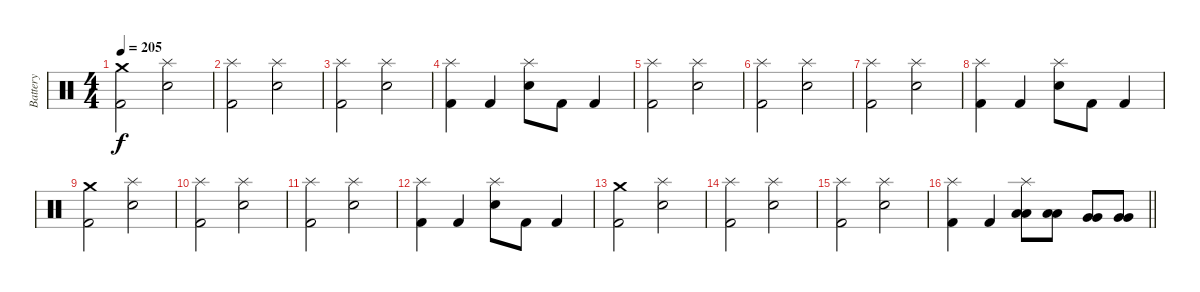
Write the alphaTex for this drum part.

\track ("Battery" "Battery") {instrument percussion}
\staff {score}
\articulation defaults
\ts (4 4)
\tempo 205
\clef neutral
\ks c
("Crash medium (hit)" "Kick (hit) 2").2{dy f} ("Splash (hit)" "Electric Snare (hit)").2 |
("Splash (hit)" "Kick (hit) 2").2 ("Splash (hit)" "Electric Snare (hit)").2 |
("Splash (hit)" "Kick (hit) 2").2 ("Splash (hit)" "Electric Snare (hit)").2 |
("Splash (hit)" "Kick (hit) 2").4 "Kick (hit) 2".4 ("Splash (hit)" "Electric Snare (hit)").8 "Kick (hit) 2".8 "Kick (hit) 2".4 |
("Splash (hit)" "Kick (hit) 2").2 ("Splash (hit)" "Electric Snare (hit)").2 |
("Splash (hit)" "Kick (hit) 2").2 ("Splash (hit)" "Electric Snare (hit)").2 |
("Splash (hit)" "Kick (hit) 2").2 ("Splash (hit)" "Electric Snare (hit)").2 |
("Splash (hit)" "Kick (hit) 2").4 "Kick (hit) 2".4 ("Splash (hit)" "Electric Snare (hit)").8 "Kick (hit) 2".8 "Kick (hit) 2".4 |
("Crash medium (hit)" "Kick (hit) 2").2 ("Splash (hit)" "Electric Snare (hit)").2 |
("Splash (hit)" "Kick (hit) 2").2 ("Splash (hit)" "Electric Snare (hit)").2 |
("Splash (hit)" "Kick (hit) 2").2 ("Splash (hit)" "Electric Snare (hit)").2 |
("Splash (hit)" "Kick (hit) 2").4 "Kick (hit) 2".4 ("Splash (hit)" "Electric Snare (hit)").8 "Kick (hit) 2".8 "Kick (hit) 2".4 |
("Crash medium (hit)" "Kick (hit) 2").2 ("Splash (hit)" "Electric Snare (hit)").2 |
("Splash (hit)" "Kick (hit) 2").2 ("Splash (hit)" "Electric Snare (hit)").2 |
("Splash (hit)" "Kick (hit) 2").2 ("Splash (hit)" "Electric Snare (hit)").2 |
\barLineRight lightlight
("Splash (hit)" "Kick (hit) 2").4 "Kick (hit) 2".4 ("Splash (hit)" "Low Tom (hit)" "Low Tom (hit)").8 ("Low Tom (hit)" "Low Tom (hit)").8 ("Very Low Tom (hit)" "Very Low Tom (hit)").8 ("Very Low Tom (hit)" "Very Low Tom (hit)").8
